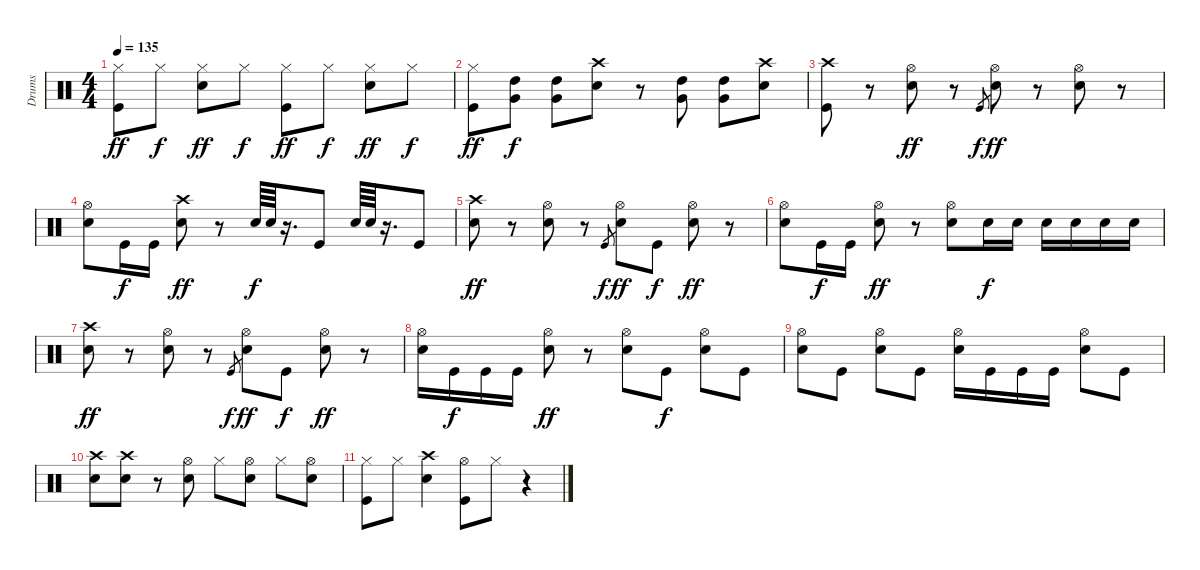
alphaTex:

\track ("Drums" "Drums") {instrument percussion}
\staff {score}
\articulation defaults
\ts (4 4)
\tempo 135
\clef neutral
\ks c
("Hi-Hat (closed)" "Kick (hit)").8{dy ff} "Hi-Hat (closed)".8{dy f} ("Hi-Hat (closed)" "Snare (hit) 2").8{dy ff} "Hi-Hat (closed)".8{dy f} ("Hi-Hat (closed)" "Kick (hit)").8{dy ff} "Hi-Hat (closed)".8{dy f} ("Hi-Hat (closed)" "Snare (hit) 2").8{dy ff} "Hi-Hat (closed)".8{dy f} |
("Hi-Hat (closed)" "Kick (hit)").8{dy ff} ("Very Low Tom (hit)" "High Tom (hit)").8{dy f} ("Very Low Tom (hit)" "High Tom (hit)").8 ("Crash high (hit)" "Snare (hit) 2").8 r.8 ("Very Low Tom (hit)" "High Tom (hit)").8 ("Very Low Tom (hit)" "High Tom (hit)").8 ("Crash high (hit)" "Snare (hit) 2").8 |
("Crash high (hit)" "Kick (hit)").8 r.8 ("Hi-Hat (open)" "Snare (hit) 2").8{dy ff} r.8 "Kick (hit)".8{gr dy f} ("Hi-Hat (open)" "Snare (hit) 2").8{dy ff} r.8 ("Hi-Hat (open)" "Snare (hit) 2").8 r.8 |
("Hi-Hat (open)" "Snare (hit) 2").8 "Kick (hit)".16{dy f} "Kick (hit)".16 ("Crash high (hit)" "Snare (hit) 2").8{dy ff} r.8 "Snare (hit) 2".64{dy f} "Snare (hit) 2".64 r.16{d} "Kick (hit)".8 "Snare (hit) 2".64 "Snare (hit) 2".64 r.16{d} "Kick (hit)".8 |
("Crash high (hit)" "Snare (hit) 2").8{dy ff} r.8 ("Hi-Hat (open)" "Snare (hit) 2").8 r.8 "Kick (hit)".8{gr dy f} ("Hi-Hat (open)" "Snare (hit) 2").8{dy ff} "Kick (hit)".8{dy f} ("Hi-Hat (open)" "Snare (hit) 2").8{dy ff} r.8 |
("Hi-Hat (open)" "Snare (hit) 2").8 "Kick (hit)".16{dy f} "Kick (hit)".16 ("Hi-Hat (open)" "Snare (hit) 2").8{dy ff} r.8 ("Hi-Hat (open)" "Snare (hit) 2").8 "Snare (hit) 2".16{dy f} "Snare (hit) 2".16 "Snare (hit) 2".16 "Snare (hit) 2".16 "Snare (hit) 2".16 "Snare (hit) 2".16 |
("Crash high (hit)" "Snare (hit) 2").8{dy ff} r.8 ("Hi-Hat (open)" "Snare (hit) 2").8 r.8 "Kick (hit)".8{gr dy f} ("Hi-Hat (open)" "Snare (hit) 2").8{dy ff} "Kick (hit)".8{dy f} ("Hi-Hat (open)" "Snare (hit) 2").8{dy ff} r.8 |
("Hi-Hat (open)" "Snare (hit) 2").16 "Kick (hit)".16{dy f} "Kick (hit)".16 "Kick (hit)".16 ("Hi-Hat (open)" "Snare (hit) 2").8{dy ff} r.8 ("Hi-Hat (open)" "Snare (hit) 2").8 "Kick (hit)".8{dy f} ("Hi-Hat (open)" "Snare (hit) 2").8 "Kick (hit)".8 |
("Hi-Hat (open)" "Snare (hit) 2").8 "Kick (hit)".8 ("Hi-Hat (open)" "Snare (hit) 2").8 "Kick (hit)".8 ("Hi-Hat (open)" "Snare (hit) 2").16 "Kick (hit)".16 "Kick (hit)".16 "Kick (hit)".16 ("Hi-Hat (open)" "Snare (hit) 2").8 "Kick (hit)".8 |
("Crash high (hit)" "Snare (hit) 2").8 ("Crash high (hit)" "Snare (hit) 2").8 r.8 ("Hi-Hat (open)" "Snare (hit) 2").8 "Hi-Hat (closed)".8 ("Hi-Hat (open)" "Snare (hit) 2").8 "Hi-Hat (closed)".8 ("Hi-Hat (open)" "Snare (hit) 2").8 |
("Hi-Hat (closed)" "Kick (hit)").8 "Hi-Hat (closed)".8 ("Crash high (hit)" "Snare (hit) 2").4 ("Hi-Hat (open)" "Kick (hit)").8 "Hi-Hat (closed)".8 r.4
